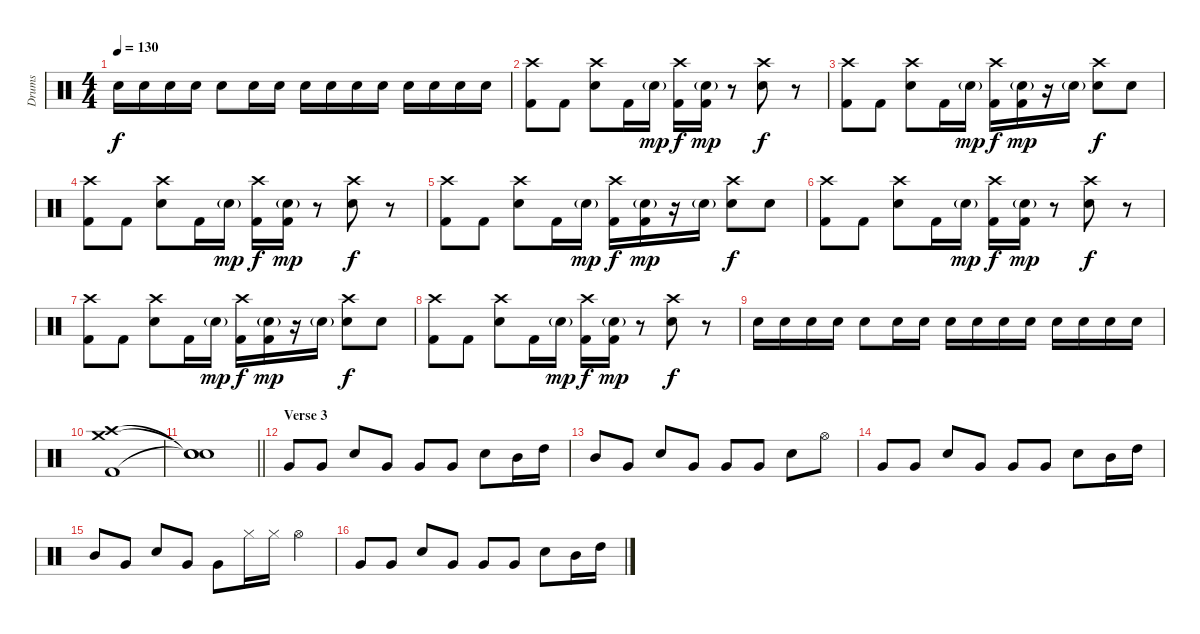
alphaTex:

\track ("Drums" "Drums") {instrument percussion}
\staff {score}
\articulation defaults
\ts (4 4)
\tempo 130
\clef neutral
\ks c "Electric Snare (hit)".16{dy f} "Electric Snare (hit)".16 "Electric Snare (hit)".16 "Electric Snare (hit)".16 "Electric Snare (hit)".8 "Electric Snare (hit)".16 "Electric Snare (hit)".16 "Electric Snare (hit)".16 "Electric Snare (hit)".16 "Electric Snare (hit)".16 "Electric Snare (hit)".16 "Electric Snare (hit)".16 "Electric Snare (hit)".16 "Electric Snare (hit)".16 "Electric Snare (hit)".16
|
("Crash high (hit)" "Kick (hit) 2").8 "Kick (hit) 2".8 ("Crash high (hit)" "Electric Snare (hit)").8 "Kick (hit) 2".16 "Electric Snare (hit)"{g}.16{dy mp} ("Crash high (hit)" "Kick (hit) 2").16{dy f} ("Electric Snare (hit)"{g} "Kick (hit) 2").16{dy mp} r.8 ("Crash high (hit)" "Electric Snare (hit)").8{dy f} r.8 |
("Crash high (hit)" "Kick (hit) 2").8 "Kick (hit) 2".8 ("Crash high (hit)" "Electric Snare (hit)").8 "Kick (hit) 2".16 "Electric Snare (hit)"{g}.16{dy mp} ("Crash high (hit)" "Kick (hit) 2").16{dy f} ("Electric Snare (hit)"{g} "Kick (hit) 2").16{dy mp} r.16 "Electric Snare (hit)"{g}.16 ("Crash high (hit)" "Electric Snare (hit)").8{dy f} "Electric Snare (hit)".8 |
("Crash high (hit)" "Kick (hit) 2").8 "Kick (hit) 2".8 ("Crash high (hit)" "Electric Snare (hit)").8 "Kick (hit) 2".16 "Electric Snare (hit)"{g}.16{dy mp} ("Crash high (hit)" "Kick (hit) 2").16{dy f} ("Electric Snare (hit)"{g} "Kick (hit) 2").16{dy mp} r.8 ("Crash high (hit)" "Electric Snare (hit)").8{dy f} r.8 |
("Crash high (hit)" "Kick (hit) 2").8 "Kick (hit) 2".8 ("Crash high (hit)" "Electric Snare (hit)").8 "Kick (hit) 2".16 "Electric Snare (hit)"{g}.16{dy mp} ("Crash high (hit)" "Kick (hit) 2").16{dy f} ("Electric Snare (hit)"{g} "Kick (hit) 2").16{dy mp} r.16 "Electric Snare (hit)"{g}.16 ("Crash high (hit)" "Electric Snare (hit)").8{dy f} "Electric Snare (hit)".8 |
("Crash high (hit)" "Kick (hit) 2").8 "Kick (hit) 2".8 ("Crash high (hit)" "Electric Snare (hit)").8 "Kick (hit) 2".16 "Electric Snare (hit)"{g}.16{dy mp} ("Crash high (hit)" "Kick (hit) 2").16{dy f} ("Electric Snare (hit)"{g} "Kick (hit) 2").16{dy mp} r.8 ("Crash high (hit)" "Electric Snare (hit)").8{dy f} r.8 |
("Crash high (hit)" "Kick (hit) 2").8 "Kick (hit) 2".8 ("Crash high (hit)" "Electric Snare (hit)").8 "Kick (hit) 2".16 "Electric Snare (hit)"{g}.16{dy mp} ("Crash high (hit)" "Kick (hit) 2").16{dy f} ("Electric Snare (hit)"{g} "Kick (hit) 2").16{dy mp} r.16 "Electric Snare (hit)"{g}.16 ("Crash high (hit)" "Electric Snare (hit)").8{dy f} "Electric Snare (hit)".8 |
("Crash high (hit)" "Kick (hit) 2").8 "Kick (hit) 2".8 ("Crash high (hit)" "Electric Snare (hit)").8 "Kick (hit) 2".16 "Electric Snare (hit)"{g}.16{dy mp} ("Crash high (hit)" "Kick (hit) 2").16{dy f} ("Electric Snare (hit)"{g} "Kick (hit) 2").16{dy mp} r.8 ("Crash high (hit)" "Electric Snare (hit)").8{dy f} r.8 |
"Electric Snare (hit)".16 "Electric Snare (hit)".16 "Electric Snare (hit)".16 "Electric Snare (hit)".16 "Electric Snare (hit)".8 "Electric Snare (hit)".16 "Electric Snare (hit)".16 "Electric Snare (hit)".16 "Electric Snare (hit)".16 "Electric Snare (hit)".16 "Electric Snare (hit)".16 "Electric Snare (hit)".16 "Electric Snare (hit)".16 "Electric Snare (hit)".16 "Electric Snare (hit)".16 |
("Crash high (hit)" "Crash medium (hit)" "Kick (hit) 2").1 |
\barLineRight lightlight
("Snare (hit)"{t} "Snare (hit)"{t} "Snare (hit)"{t}).1 |
\section ("" "Verse 3")
"Very Low Tom (hit)".8 "Very Low Tom (hit)".8 "Electric Snare (hit)".8 "Very Low Tom (hit)".8 "Very Low Tom (hit)".8 "Very Low Tom (hit)".8 "Electric Snare (hit)".8 "Mid Tom (hit)".16 "High Tom (hit)".16 |
"Mid Tom (hit)".8 "Very Low Tom (hit)".8 "Electric Snare (hit)".8 "Very Low Tom (hit)".8 "Very Low Tom (hit)".8 "Very Low Tom (hit)".8 "Electric Snare (hit)".8 "Hi-Hat (open)".8 |
"Very Low Tom (hit)".8 "Very Low Tom (hit)".8 "Electric Snare (hit)".8 "Very Low Tom (hit)".8 "Very Low Tom (hit)".8 "Very Low Tom (hit)".8 "Electric Snare (hit)".8 "Mid Tom (hit)".16 "High Tom (hit)".16 |
"Mid Tom (hit)".8 "Very Low Tom (hit)".8 "Electric Snare (hit)".8 "Very Low Tom (hit)".8 "Very Low Tom (hit)".8 "Hi-Hat (closed)".16 "Hi-Hat (closed)".16 "Hi-Hat (open)".4 |
"Very Low Tom (hit)".8 "Very Low Tom (hit)".8 "Electric Snare (hit)".8 "Very Low Tom (hit)".8 "Very Low Tom (hit)".8 "Very Low Tom (hit)".8 "Electric Snare (hit)".8 "Mid Tom (hit)".16 "High Tom (hit)".16
